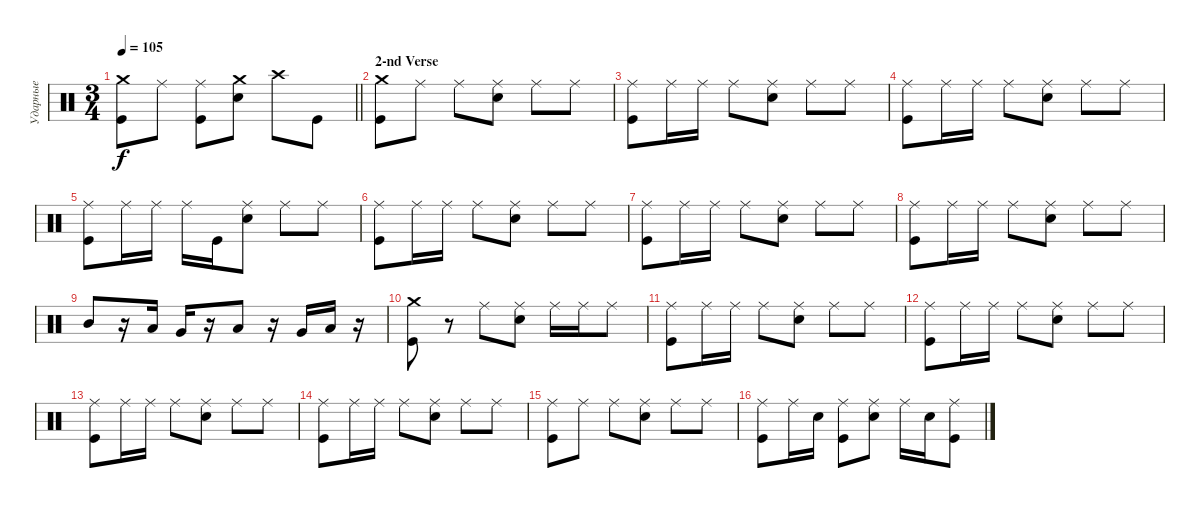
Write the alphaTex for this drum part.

\track ("Ударные" "Ударные") {instrument percussion}
\staff {score}
\articulation defaults
\ts (3 4)
\tempo 105
\clef neutral
\barLineRight lightlight
\ks c
("Crash medium (hit)" "Kick (hit)").8{dy f} "Ride (middle)".8 ("Ride (middle)" "Kick (hit)").8 ("Crash medium (hit)" "Electric Snare (hit)").8 "Crash high (hit)".8 "Kick (hit)".8 |
\section ("" "2-nd Verse")
("Crash medium (hit)" "Kick (hit)").8 "Ride (middle)".8 "Ride (middle)".8 ("Ride (middle)" "Electric Snare (hit)").8 "Ride (middle)".8 "Ride (middle)".8 |
("Ride (middle)" "Kick (hit)").8 "Ride (middle)".16 "Ride (middle)".16 "Ride (middle)".8 ("Ride (middle)" "Electric Snare (hit)").8 "Ride (middle)".8 "Ride (middle)".8 |
("Ride (middle)" "Kick (hit)").8 "Ride (middle)".16 "Ride (middle)".16 "Ride (middle)".8 ("Ride (middle)" "Electric Snare (hit)").8 "Ride (middle)".8 "Ride (middle)".8 |
("Ride (middle)" "Kick (hit)").8 "Ride (middle)".16 "Ride (middle)".16 "Ride (middle)".16 "Kick (hit)".16 ("Ride (middle)" "Electric Snare (hit)").8 "Ride (middle)".8 "Ride (middle)".8 |
("Ride (middle)" "Kick (hit)").8 "Ride (middle)".16 "Ride (middle)".16 "Ride (middle)".8 ("Ride (middle)" "Electric Snare (hit)").8 "Ride (middle)".8 "Ride (middle)".8 |
("Ride (middle)" "Kick (hit)").8 "Ride (middle)".16 "Ride (middle)".16 "Ride (middle)".8 ("Ride (middle)" "Electric Snare (hit)").8 "Ride (middle)".8 "Ride (middle)".8 |
("Ride (middle)" "Kick (hit)").8 "Ride (middle)".16 "Ride (middle)".16 "Ride (middle)".8 ("Ride (middle)" "Electric Snare (hit)").8 "Ride (middle)".8 "Ride (middle)".8 |
"Mid Tom (hit)".8 r.16 "Low Tom (hit)".16 "Very Low Tom (hit)".16 r.16 "Low Tom (hit)".8 r.16 "Very Low Tom (hit)".16 "Low Floor Tom (hit)".16 r.16 |
("Crash medium (hit)" "Kick (hit)").8 r.8 "Ride (middle)".8 ("Ride (middle)" "Electric Snare (hit)").8 "Ride (middle)".16 "Ride (middle)".16 "Ride (middle)".8 |
("Ride (middle)" "Kick (hit)").8 "Ride (middle)".16 "Ride (middle)".16 "Ride (middle)".8 ("Ride (middle)" "Electric Snare (hit)").8 "Ride (middle)".8 "Ride (middle)".8 |
("Ride (middle)" "Kick (hit)").8 "Ride (middle)".16 "Ride (middle)".16 "Ride (middle)".8 ("Ride (middle)" "Electric Snare (hit)").8 "Ride (middle)".8 "Ride (middle)".8 |
("Ride (middle)" "Kick (hit)").8 "Ride (middle)".16 "Ride (middle)".16 "Ride (middle)".8 ("Ride (middle)" "Electric Snare (hit)").8 "Ride (middle)".8 "Ride (middle)".8 |
("Ride (middle)" "Kick (hit)").8 "Ride (middle)".16 "Ride (middle)".16 "Ride (middle)".8 ("Ride (middle)" "Electric Snare (hit)").8 "Ride (middle)".8 "Ride (middle)".8 |
("Ride (middle)" "Kick (hit)").8 "Ride (middle)".8 "Ride (middle)".8 ("Ride (middle)" "Electric Snare (hit)").8 "Ride (middle)".8 "Ride (middle)".8 |
("Ride (middle)" "Kick (hit)").8 "Ride (middle)".16 "Electric Snare (hit)".16 ("Ride (middle)" "Kick (hit)").8 ("Ride (middle)" "Electric Snare (hit)").8 "Ride (middle)".16 "Electric Snare (hit)".16 ("Ride (middle)" "Kick (hit)").8
